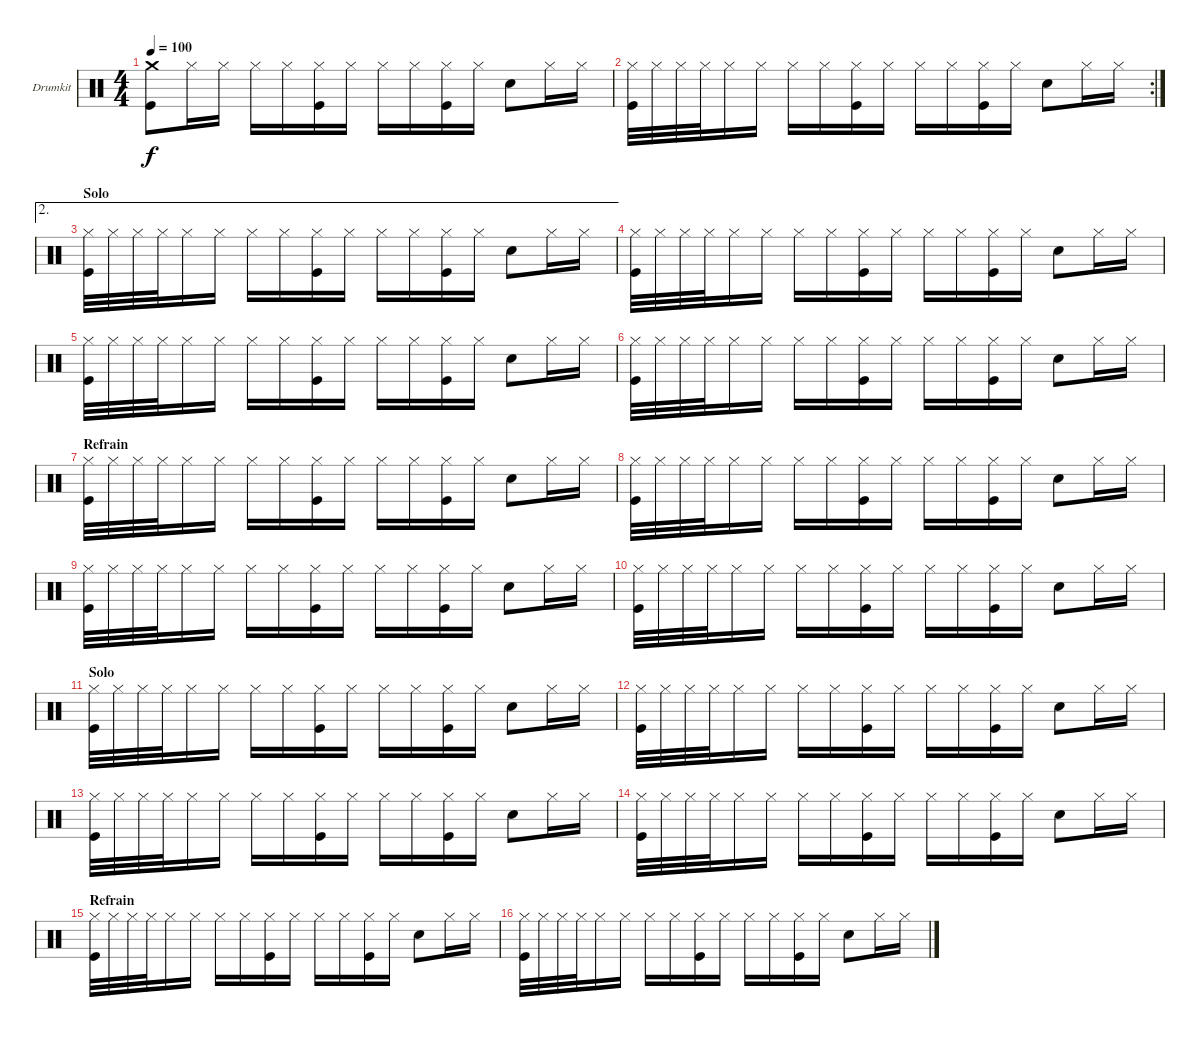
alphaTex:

\bracketExtendMode groupsimilarinstruments
\firstSystemTrackNameOrientation horizontal
\otherSystemsTrackNameOrientation horizontal
\track ("Drumkit" "Drumkit") {instrument percussion}
\staff {score}
\articulation defaults
\ts (4 4)
\tempo 100
\clef neutral
\ks c
("Crash medium (hit)" "Kick (hit)").8{dy f} "Hi-Hat (closed)".16 "Hi-Hat (closed)".16 "Hi-Hat (closed)".16 "Hi-Hat (closed)".16 ("Hi-Hat (closed)" "Kick (hit)").16 "Hi-Hat (closed)".16 "Hi-Hat (closed)".16 "Hi-Hat (closed)".16 ("Hi-Hat (closed)" "Kick (hit)").16 "Hi-Hat (closed)".16 "Snare (hit) 2".8 "Hi-Hat (closed)".16 "Hi-Hat (closed)".16 |
\rc 2
("Hi-Hat (closed)" "Kick (hit)").32 "Hi-Hat (closed)".32 "Hi-Hat (closed)".32 "Hi-Hat (closed)".32 "Hi-Hat (closed)".16 "Hi-Hat (closed)".16 "Hi-Hat (closed)".16 "Hi-Hat (closed)".16 ("Hi-Hat (closed)" "Kick (hit)").16 "Hi-Hat (closed)".16 "Hi-Hat (closed)".16 "Hi-Hat (closed)".16 ("Hi-Hat (closed)" "Kick (hit)").16 "Hi-Hat (closed)".16 "Snare (hit) 2".8 "Hi-Hat (closed)".16 "Hi-Hat (closed)".16 |
\ae 2
\section ("" "Solo")
("Hi-Hat (closed)" "Kick (hit)").32 "Hi-Hat (closed)".32 "Hi-Hat (closed)".32 "Hi-Hat (closed)".32 "Hi-Hat (closed)".16 "Hi-Hat (closed)".16 "Hi-Hat (closed)".16 "Hi-Hat (closed)".16 ("Hi-Hat (closed)" "Kick (hit)").16 "Hi-Hat (closed)".16 "Hi-Hat (closed)".16 "Hi-Hat (closed)".16 ("Hi-Hat (closed)" "Kick (hit)").16 "Hi-Hat (closed)".16 "Snare (hit) 2".8 "Hi-Hat (closed)".16 "Hi-Hat (closed)".16 |
("Hi-Hat (closed)" "Kick (hit)").32 "Hi-Hat (closed)".32 "Hi-Hat (closed)".32 "Hi-Hat (closed)".32 "Hi-Hat (closed)".16 "Hi-Hat (closed)".16 "Hi-Hat (closed)".16 "Hi-Hat (closed)".16 ("Hi-Hat (closed)" "Kick (hit)").16 "Hi-Hat (closed)".16 "Hi-Hat (closed)".16 "Hi-Hat (closed)".16 ("Hi-Hat (closed)" "Kick (hit)").16 "Hi-Hat (closed)".16 "Snare (hit) 2".8 "Hi-Hat (closed)".16 "Hi-Hat (closed)".16 |
("Hi-Hat (closed)" "Kick (hit)").32 "Hi-Hat (closed)".32 "Hi-Hat (closed)".32 "Hi-Hat (closed)".32 "Hi-Hat (closed)".16 "Hi-Hat (closed)".16 "Hi-Hat (closed)".16 "Hi-Hat (closed)".16 ("Hi-Hat (closed)" "Kick (hit)").16 "Hi-Hat (closed)".16 "Hi-Hat (closed)".16 "Hi-Hat (closed)".16 ("Hi-Hat (closed)" "Kick (hit)").16 "Hi-Hat (closed)".16 "Snare (hit) 2".8 "Hi-Hat (closed)".16 "Hi-Hat (closed)".16 |
("Hi-Hat (closed)" "Kick (hit)").32 "Hi-Hat (closed)".32 "Hi-Hat (closed)".32 "Hi-Hat (closed)".32 "Hi-Hat (closed)".16 "Hi-Hat (closed)".16 "Hi-Hat (closed)".16 "Hi-Hat (closed)".16 ("Hi-Hat (closed)" "Kick (hit)").16 "Hi-Hat (closed)".16 "Hi-Hat (closed)".16 "Hi-Hat (closed)".16 ("Hi-Hat (closed)" "Kick (hit)").16 "Hi-Hat (closed)".16 "Snare (hit) 2".8 "Hi-Hat (closed)".16 "Hi-Hat (closed)".16 |
\section ("" "Refrain")
("Hi-Hat (closed)" "Kick (hit)").32 "Hi-Hat (closed)".32 "Hi-Hat (closed)".32 "Hi-Hat (closed)".32 "Hi-Hat (closed)".16 "Hi-Hat (closed)".16 "Hi-Hat (closed)".16 "Hi-Hat (closed)".16 ("Hi-Hat (closed)" "Kick (hit)").16 "Hi-Hat (closed)".16 "Hi-Hat (closed)".16 "Hi-Hat (closed)".16 ("Hi-Hat (closed)" "Kick (hit)").16 "Hi-Hat (closed)".16 "Snare (hit) 2".8 "Hi-Hat (closed)".16 "Hi-Hat (closed)".16 |
("Hi-Hat (closed)" "Kick (hit)").32 "Hi-Hat (closed)".32 "Hi-Hat (closed)".32 "Hi-Hat (closed)".32 "Hi-Hat (closed)".16 "Hi-Hat (closed)".16 "Hi-Hat (closed)".16 "Hi-Hat (closed)".16 ("Hi-Hat (closed)" "Kick (hit)").16 "Hi-Hat (closed)".16 "Hi-Hat (closed)".16 "Hi-Hat (closed)".16 ("Hi-Hat (closed)" "Kick (hit)").16 "Hi-Hat (closed)".16 "Snare (hit) 2".8 "Hi-Hat (closed)".16 "Hi-Hat (closed)".16 |
("Hi-Hat (closed)" "Kick (hit)").32 "Hi-Hat (closed)".32 "Hi-Hat (closed)".32 "Hi-Hat (closed)".32 "Hi-Hat (closed)".16 "Hi-Hat (closed)".16 "Hi-Hat (closed)".16 "Hi-Hat (closed)".16 ("Hi-Hat (closed)" "Kick (hit)").16 "Hi-Hat (closed)".16 "Hi-Hat (closed)".16 "Hi-Hat (closed)".16 ("Hi-Hat (closed)" "Kick (hit)").16 "Hi-Hat (closed)".16 "Snare (hit) 2".8 "Hi-Hat (closed)".16 "Hi-Hat (closed)".16 |
("Hi-Hat (closed)" "Kick (hit)").32 "Hi-Hat (closed)".32 "Hi-Hat (closed)".32 "Hi-Hat (closed)".32 "Hi-Hat (closed)".16 "Hi-Hat (closed)".16 "Hi-Hat (closed)".16 "Hi-Hat (closed)".16 ("Hi-Hat (closed)" "Kick (hit)").16 "Hi-Hat (closed)".16 "Hi-Hat (closed)".16 "Hi-Hat (closed)".16 ("Hi-Hat (closed)" "Kick (hit)").16 "Hi-Hat (closed)".16 "Snare (hit) 2".8 "Hi-Hat (closed)".16 "Hi-Hat (closed)".16 |
\section ("" "Solo")
("Hi-Hat (closed)" "Kick (hit)").32 "Hi-Hat (closed)".32 "Hi-Hat (closed)".32 "Hi-Hat (closed)".32 "Hi-Hat (closed)".16 "Hi-Hat (closed)".16 "Hi-Hat (closed)".16 "Hi-Hat (closed)".16 ("Hi-Hat (closed)" "Kick (hit)").16 "Hi-Hat (closed)".16 "Hi-Hat (closed)".16 "Hi-Hat (closed)".16 ("Hi-Hat (closed)" "Kick (hit)").16 "Hi-Hat (closed)".16 "Snare (hit) 2".8 "Hi-Hat (closed)".16 "Hi-Hat (closed)".16 |
("Hi-Hat (closed)" "Kick (hit)").32 "Hi-Hat (closed)".32 "Hi-Hat (closed)".32 "Hi-Hat (closed)".32 "Hi-Hat (closed)".16 "Hi-Hat (closed)".16 "Hi-Hat (closed)".16 "Hi-Hat (closed)".16 ("Hi-Hat (closed)" "Kick (hit)").16 "Hi-Hat (closed)".16 "Hi-Hat (closed)".16 "Hi-Hat (closed)".16 ("Hi-Hat (closed)" "Kick (hit)").16 "Hi-Hat (closed)".16 "Snare (hit) 2".8 "Hi-Hat (closed)".16 "Hi-Hat (closed)".16 |
("Hi-Hat (closed)" "Kick (hit)").32 "Hi-Hat (closed)".32 "Hi-Hat (closed)".32 "Hi-Hat (closed)".32 "Hi-Hat (closed)".16 "Hi-Hat (closed)".16 "Hi-Hat (closed)".16 "Hi-Hat (closed)".16 ("Hi-Hat (closed)" "Kick (hit)").16 "Hi-Hat (closed)".16 "Hi-Hat (closed)".16 "Hi-Hat (closed)".16 ("Hi-Hat (closed)" "Kick (hit)").16 "Hi-Hat (closed)".16 "Snare (hit) 2".8 "Hi-Hat (closed)".16 "Hi-Hat (closed)".16 |
("Hi-Hat (closed)" "Kick (hit)").32 "Hi-Hat (closed)".32 "Hi-Hat (closed)".32 "Hi-Hat (closed)".32 "Hi-Hat (closed)".16 "Hi-Hat (closed)".16 "Hi-Hat (closed)".16 "Hi-Hat (closed)".16 ("Hi-Hat (closed)" "Kick (hit)").16 "Hi-Hat (closed)".16 "Hi-Hat (closed)".16 "Hi-Hat (closed)".16 ("Hi-Hat (closed)" "Kick (hit)").16 "Hi-Hat (closed)".16 "Snare (hit) 2".8 "Hi-Hat (closed)".16 "Hi-Hat (closed)".16 |
\section ("" "Refrain")
("Hi-Hat (closed)" "Kick (hit)").32 "Hi-Hat (closed)".32 "Hi-Hat (closed)".32 "Hi-Hat (closed)".32 "Hi-Hat (closed)".16 "Hi-Hat (closed)".16 "Hi-Hat (closed)".16 "Hi-Hat (closed)".16 ("Hi-Hat (closed)" "Kick (hit)").16 "Hi-Hat (closed)".16 "Hi-Hat (closed)".16 "Hi-Hat (closed)".16 ("Hi-Hat (closed)" "Kick (hit)").16 "Hi-Hat (closed)".16 "Snare (hit) 2".8 "Hi-Hat (closed)".16 "Hi-Hat (closed)".16 |
("Hi-Hat (closed)" "Kick (hit)").32 "Hi-Hat (closed)".32 "Hi-Hat (closed)".32 "Hi-Hat (closed)".32 "Hi-Hat (closed)".16 "Hi-Hat (closed)".16 "Hi-Hat (closed)".16 "Hi-Hat (closed)".16 ("Hi-Hat (closed)" "Kick (hit)").16 "Hi-Hat (closed)".16 "Hi-Hat (closed)".16 "Hi-Hat (closed)".16 ("Hi-Hat (closed)" "Kick (hit)").16 "Hi-Hat (closed)".16 "Snare (hit) 2".8 "Hi-Hat (closed)".16 "Hi-Hat (closed)".16
